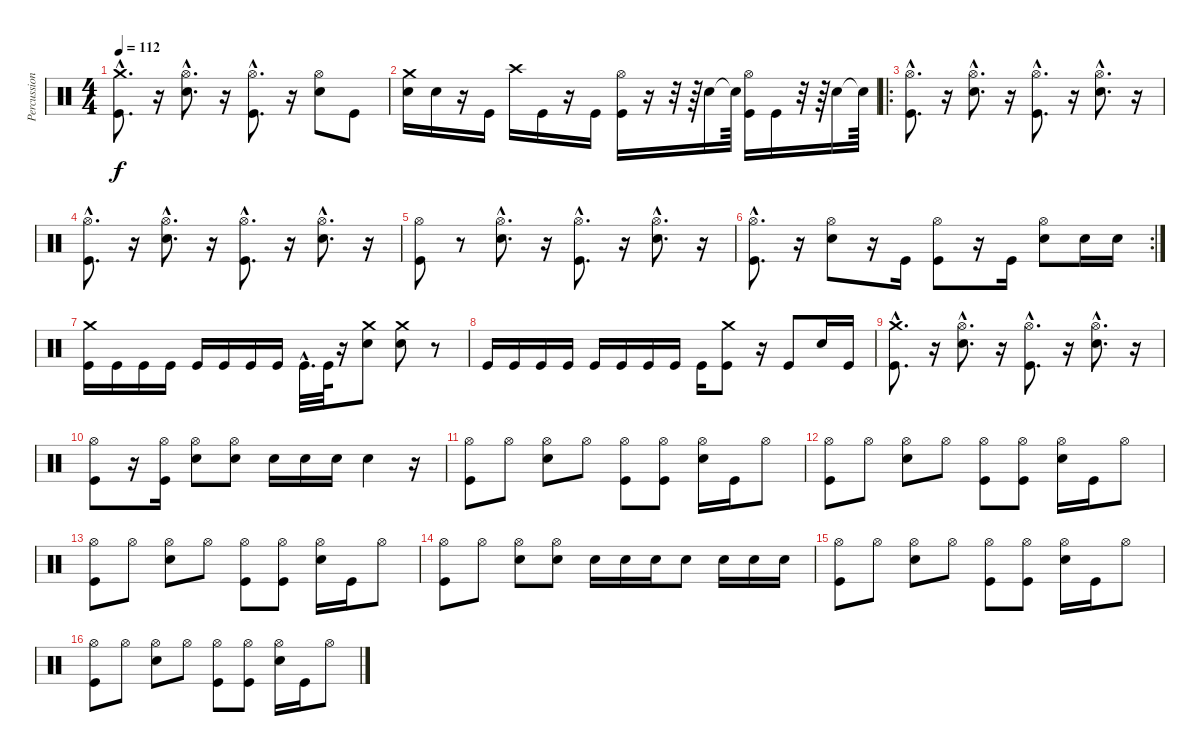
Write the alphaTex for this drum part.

\track ("Percussion" "Percussion") {instrument percussion}
\staff {score}
\articulation defaults
\ts (4 4)
\tempo 112
\clef neutral
\ks c
("Kick (hit)"{hac} "Crash medium (hit)"{hac}).8{d dy f} r.16 ("Hi-Hat (open)"{hac} "Electric Snare (hit)"{hac}).8{d} r.16 ("Hi-Hat (open)"{hac} "Kick (hit)"{hac}).8{d} r.16 ("Hi-Hat (open)" "Electric Snare (hit)").8 "Kick (hit)".8 |
("Electric Snare (hit)" "Crash medium (hit)").16 "Electric Snare (hit)".16 r.16 "Kick (hit)".16 "Crash high (hit)".16 "Kick (hit)".16 r.16 "Kick (hit)".16 ("Hi-Hat (open)" "Kick (hit)").16 r.16 r.32 r.64 "Electric Snare (hit)".16 "Snare (hit)"{t}.64 ("Hi-Hat (open)" "Kick (hit)").16 "Kick (hit)".16 r.32 r.64 "Electric Snare (hit)".16 "Snare (hit)"{t}.64 |
\ro
("Hi-Hat (open)"{hac} "Kick (hit)"{hac}).8{d} r.16 ("Hi-Hat (open)"{hac} "Electric Snare (hit)"{hac}).8{d} r.16 ("Hi-Hat (open)"{hac} "Kick (hit)"{hac}).8{d} r.16 ("Hi-Hat (open)"{hac} "Electric Snare (hit)"{hac}).8{d} r.16 |
("Hi-Hat (open)"{hac} "Kick (hit)"{hac}).8{d} r.16 ("Hi-Hat (open)"{hac} "Electric Snare (hit)"{hac}).8{d} r.16 ("Hi-Hat (open)"{hac} "Kick (hit)"{hac}).8{d} r.16 ("Hi-Hat (open)"{hac} "Electric Snare (hit)"{hac}).8{d} r.16 |
("Hi-Hat (open)" "Kick (hit)").8 r.8 ("Hi-Hat (open)"{hac} "Electric Snare (hit)"{hac}).8{d} r.16 ("Hi-Hat (open)"{hac} "Kick (hit)"{hac}).8{d} r.16 ("Hi-Hat (open)"{hac} "Electric Snare (hit)"{hac}).8{d} r.16 |
\rc 2
("Hi-Hat (open)"{hac} "Kick (hit)"{hac}).8{d} r.16 ("Hi-Hat (open)" "Electric Snare (hit)").8 r.16 "Kick (hit)".16 ("Hi-Hat (open)" "Kick (hit)").8 r.16 "Kick (hit)".16 ("Hi-Hat (open)" "Electric Snare (hit)").8 "Electric Snare (hit)".16 "Electric Snare (hit)".16 |
("Kick (hit)" "Crash medium (hit)").16 "Kick (hit)".16 "Kick (hit)".16 "Kick (hit)".16 "Kick (hit)".16 "Kick (hit)".16 "Kick (hit)".16 "Kick (hit)".16 "Kick (hit)"{hac}.32{d} "Kick (hit)".64 r.16 ("Electric Snare (hit)" "Crash medium (hit)").8 ("Electric Snare (hit)" "Crash medium (hit)").8 r.8 |
"Kick (hit)".16 "Kick (hit)".16 "Kick (hit)".16 "Kick (hit)".16 "Kick (hit)".16 "Kick (hit)".16 "Kick (hit)".16 "Kick (hit)".16 "Kick (hit)".16 ("Crash medium (hit)" "Kick (hit)").8 r.16 "Kick (hit)".8 "Electric Snare (hit)".16 "Kick (hit)".16 |
("Kick (hit)"{hac} "Crash medium (hit)"{hac}).8{d} r.16 ("Hi-Hat (open)"{hac} "Electric Snare (hit)"{hac}).8{d} r.16 ("Hi-Hat (open)"{hac} "Kick (hit)"{hac}).8{d} r.16 ("Hi-Hat (open)"{hac} "Electric Snare (hit)"{hac}).8{d} r.16 |
("Hi-Hat (open)" "Kick (hit)").8 r.16 ("Hi-Hat (open)" "Kick (hit)").16 ("Hi-Hat (open)" "Electric Snare (hit)").8 ("Hi-Hat (open)" "Electric Snare (hit)").8 "Electric Snare (hit)".16 "Electric Snare (hit)".16 "Electric Snare (hit)".16 "Electric Snare (hit)".4 r.16 |
("Hi-Hat (open)" "Kick (hit)").8 "Hi-Hat (open)".8 ("Hi-Hat (open)" "Electric Snare (hit)").8 "Hi-Hat (open)".8 ("Hi-Hat (open)" "Kick (hit)").8 ("Hi-Hat (open)" "Kick (hit)").8 ("Hi-Hat (open)" "Electric Snare (hit)").16 "Kick (hit)".16 "Hi-Hat (open)".8 |
("Hi-Hat (open)" "Kick (hit)").8 "Hi-Hat (open)".8 ("Hi-Hat (open)" "Electric Snare (hit)").8 "Hi-Hat (open)".8 ("Hi-Hat (open)" "Kick (hit)").8 ("Hi-Hat (open)" "Kick (hit)").8 ("Hi-Hat (open)" "Electric Snare (hit)").16 "Kick (hit)".16 "Hi-Hat (open)".8 |
("Hi-Hat (open)" "Kick (hit)").8 "Hi-Hat (open)".8 ("Hi-Hat (open)" "Electric Snare (hit)").8 "Hi-Hat (open)".8 ("Hi-Hat (open)" "Kick (hit)").8 ("Hi-Hat (open)" "Kick (hit)").8 ("Hi-Hat (open)" "Electric Snare (hit)").16 "Kick (hit)".16 "Hi-Hat (open)".8 |
("Hi-Hat (open)" "Kick (hit)").8 "Hi-Hat (open)".8 ("Hi-Hat (open)" "Electric Snare (hit)").8 ("Hi-Hat (open)" "Electric Snare (hit)").8 "Electric Snare (hit)".16 "Electric Snare (hit)".16 "Electric Snare (hit)".16 "Electric Snare (hit)".8 "Electric Snare (hit)".16 "Electric Snare (hit)".16 "Electric Snare (hit)".16 |
("Hi-Hat (open)" "Kick (hit)").8 "Hi-Hat (open)".8 ("Hi-Hat (open)" "Electric Snare (hit)").8 "Hi-Hat (open)".8 ("Hi-Hat (open)" "Kick (hit)").8 ("Hi-Hat (open)" "Kick (hit)").8 ("Hi-Hat (open)" "Electric Snare (hit)").16 "Kick (hit)".16 "Hi-Hat (open)".8 |
("Hi-Hat (open)" "Kick (hit)").8 "Hi-Hat (open)".8 ("Hi-Hat (open)" "Electric Snare (hit)").8 "Hi-Hat (open)".8 ("Hi-Hat (open)" "Kick (hit)").8 ("Hi-Hat (open)" "Kick (hit)").8 ("Hi-Hat (open)" "Electric Snare (hit)").16 "Kick (hit)".16 "Hi-Hat (open)".8
